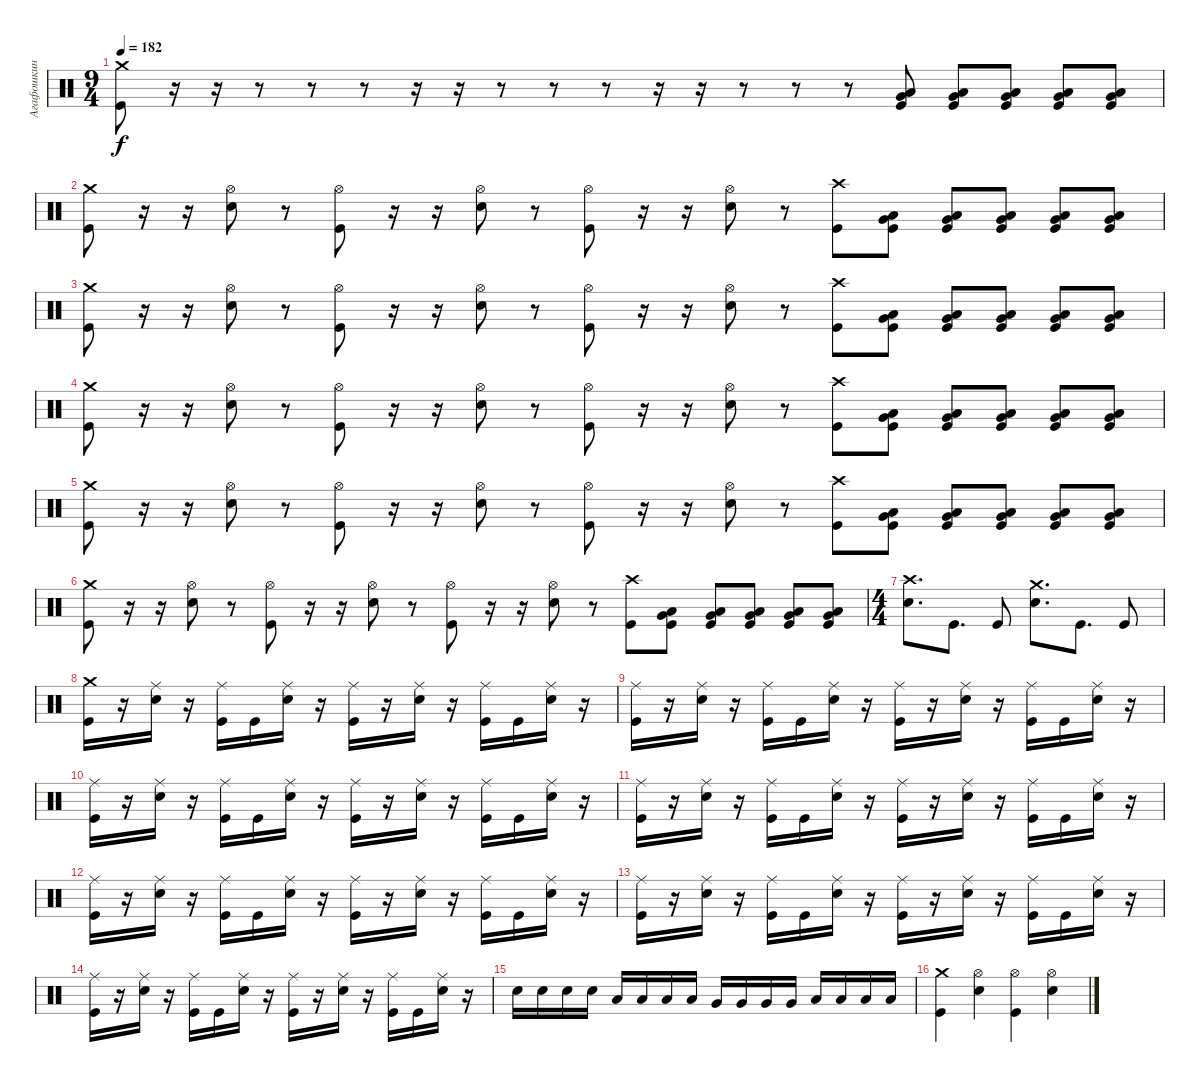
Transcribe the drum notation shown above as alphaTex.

\track ("Агафошкин" "Агафошкин") {instrument percussion}
\staff {score}
\articulation defaults
\ts (9 4)
\tempo 182
\clef neutral
\ks c
("Crash medium (hit)" "Kick (hit)").8{dy f} r.16 r.16 r.8 r.8 r.8 r.16 r.16 r.8 r.8 r.8 r.16 r.16 r.8 r.8 r.8 ("Very Low Tom (hit)" "Low Tom (hit)" "Kick (hit)").8 ("Very Low Tom (hit)" "Low Tom (hit)" "Kick (hit)").8 ("Low Tom (hit)" "Very Low Tom (hit)" "Kick (hit)").8 ("Low Tom (hit)" "Very Low Tom (hit)" "Kick (hit)").8 ("Very Low Tom (hit)" "Low Tom (hit)" "Kick (hit)").8 |
("Crash medium (hit)" "Kick (hit)").8 r.16 r.16 ("Hi-Hat (open)" "Snare (hit) 2").8 r.8 ("Hi-Hat (open)" "Kick (hit)").8 r.16 r.16 ("Hi-Hat (open)" "Snare (hit) 2").8 r.8 ("Hi-Hat (open)" "Kick (hit)").8 r.16 r.16 ("Hi-Hat (open)" "Snare (hit) 2").8 r.8 ("Crash high (hit)" "Kick (hit)").8 ("Very Low Tom (hit)" "Low Tom (hit)" "Kick (hit)").8 ("Very Low Tom (hit)" "Low Tom (hit)" "Kick (hit)").8 ("Low Tom (hit)" "Very Low Tom (hit)" "Kick (hit)").8 ("Low Tom (hit)" "Very Low Tom (hit)" "Kick (hit)").8 ("Very Low Tom (hit)" "Low Tom (hit)" "Kick (hit)").8 |
("Crash medium (hit)" "Kick (hit)").8 r.16 r.16 ("Hi-Hat (open)" "Snare (hit) 2").8 r.8 ("Hi-Hat (open)" "Kick (hit)").8 r.16 r.16 ("Hi-Hat (open)" "Snare (hit) 2").8 r.8 ("Hi-Hat (open)" "Kick (hit)").8 r.16 r.16 ("Hi-Hat (open)" "Snare (hit) 2").8 r.8 ("Crash high (hit)" "Kick (hit)").8 ("Very Low Tom (hit)" "Low Tom (hit)" "Kick (hit)").8 ("Very Low Tom (hit)" "Low Tom (hit)" "Kick (hit)").8 ("Low Tom (hit)" "Very Low Tom (hit)" "Kick (hit)").8 ("Low Tom (hit)" "Very Low Tom (hit)" "Kick (hit)").8 ("Very Low Tom (hit)" "Low Tom (hit)" "Kick (hit)").8 |
("Crash medium (hit)" "Kick (hit)").8 r.16 r.16 ("Hi-Hat (open)" "Snare (hit) 2").8 r.8 ("Hi-Hat (open)" "Kick (hit)").8 r.16 r.16 ("Hi-Hat (open)" "Snare (hit) 2").8 r.8 ("Hi-Hat (open)" "Kick (hit)").8 r.16 r.16 ("Hi-Hat (open)" "Snare (hit) 2").8 r.8 ("Crash high (hit)" "Kick (hit)").8 ("Very Low Tom (hit)" "Low Tom (hit)" "Kick (hit)").8 ("Very Low Tom (hit)" "Low Tom (hit)" "Kick (hit)").8 ("Low Tom (hit)" "Very Low Tom (hit)" "Kick (hit)").8 ("Low Tom (hit)" "Very Low Tom (hit)" "Kick (hit)").8 ("Very Low Tom (hit)" "Low Tom (hit)" "Kick (hit)").8 |
("Crash medium (hit)" "Kick (hit)").8 r.16 r.16 ("Hi-Hat (open)" "Snare (hit) 2").8 r.8 ("Hi-Hat (open)" "Kick (hit)").8 r.16 r.16 ("Hi-Hat (open)" "Snare (hit) 2").8 r.8 ("Hi-Hat (open)" "Kick (hit)").8 r.16 r.16 ("Hi-Hat (open)" "Snare (hit) 2").8 r.8 ("Crash high (hit)" "Kick (hit)").8 ("Very Low Tom (hit)" "Low Tom (hit)" "Kick (hit)").8 ("Very Low Tom (hit)" "Low Tom (hit)" "Kick (hit)").8 ("Low Tom (hit)" "Very Low Tom (hit)" "Kick (hit)").8 ("Low Tom (hit)" "Very Low Tom (hit)" "Kick (hit)").8 ("Very Low Tom (hit)" "Low Tom (hit)" "Kick (hit)").8 |
("Crash medium (hit)" "Kick (hit)").8 r.16 r.16 ("Hi-Hat (open)" "Snare (hit) 2").8 r.8 ("Hi-Hat (open)" "Kick (hit)").8 r.16 r.16 ("Hi-Hat (open)" "Snare (hit) 2").8 r.8 ("Hi-Hat (open)" "Kick (hit)").8 r.16 r.16 ("Hi-Hat (open)" "Snare (hit) 2").8 r.8 ("Crash high (hit)" "Kick (hit)").8 ("Very Low Tom (hit)" "Low Tom (hit)" "Kick (hit)").8 ("Very Low Tom (hit)" "Low Tom (hit)" "Kick (hit)").8 ("Low Tom (hit)" "Very Low Tom (hit)" "Kick (hit)").8 ("Low Tom (hit)" "Very Low Tom (hit)" "Kick (hit)").8 ("Very Low Tom (hit)" "Low Tom (hit)" "Kick (hit)").8 |
\ts (4 4)
("Crash high (hit)" "Snare (hit) 2").8{d} "Kick (hit)".8{d} "Kick (hit)".8 ("Crash medium (hit)" "Snare (hit) 2").8{d} "Kick (hit)".8{d} "Kick (hit)".8 |
("Crash medium (hit)" "Kick (hit)").16 r.16 ("Ride (middle)" "Snare (hit) 2").16 r.16 ("Ride (middle)" "Kick (hit)").16 "Kick (hit)".16 ("Ride (middle)" "Snare (hit) 2").16 r.16 ("Ride (middle)" "Kick (hit)").16 r.16 ("Ride (middle)" "Snare (hit) 2").16 r.16 ("Ride (middle)" "Kick (hit)").16 "Kick (hit)".16 ("Ride (middle)" "Snare (hit) 2").16 r.16 |
("Ride (middle)" "Kick (hit)").16 r.16 ("Ride (middle)" "Snare (hit) 2").16 r.16 ("Ride (middle)" "Kick (hit)").16 "Kick (hit)".16 ("Ride (middle)" "Snare (hit) 2").16 r.16 ("Ride (middle)" "Kick (hit)").16 r.16 ("Ride (middle)" "Snare (hit) 2").16 r.16 ("Ride (middle)" "Kick (hit)").16 "Kick (hit)".16 ("Ride (middle)" "Snare (hit) 2").16 r.16 |
("Ride (middle)" "Kick (hit)").16 r.16 ("Ride (middle)" "Snare (hit) 2").16 r.16 ("Ride (middle)" "Kick (hit)").16 "Kick (hit)".16 ("Ride (middle)" "Snare (hit) 2").16 r.16 ("Ride (middle)" "Kick (hit)").16 r.16 ("Ride (middle)" "Snare (hit) 2").16 r.16 ("Ride (middle)" "Kick (hit)").16 "Kick (hit)".16 ("Ride (middle)" "Snare (hit) 2").16 r.16 |
("Ride (middle)" "Kick (hit)").16 r.16 ("Ride (middle)" "Snare (hit) 2").16 r.16 ("Ride (middle)" "Kick (hit)").16 "Kick (hit)".16 ("Ride (middle)" "Snare (hit) 2").16 r.16 ("Ride (middle)" "Kick (hit)").16 r.16 ("Ride (middle)" "Snare (hit) 2").16 r.16 ("Ride (middle)" "Kick (hit)").16 "Kick (hit)".16 ("Ride (middle)" "Snare (hit) 2").16 r.16 |
("Ride (middle)" "Kick (hit)").16 r.16 ("Ride (middle)" "Snare (hit) 2").16 r.16 ("Ride (middle)" "Kick (hit)").16 "Kick (hit)".16 ("Ride (middle)" "Snare (hit) 2").16 r.16 ("Ride (middle)" "Kick (hit)").16 r.16 ("Ride (middle)" "Snare (hit) 2").16 r.16 ("Ride (middle)" "Kick (hit)").16 "Kick (hit)".16 ("Ride (middle)" "Snare (hit) 2").16 r.16 |
("Ride (middle)" "Kick (hit)").16 r.16 ("Ride (middle)" "Snare (hit) 2").16 r.16 ("Ride (middle)" "Kick (hit)").16 "Kick (hit)".16 ("Ride (middle)" "Snare (hit) 2").16 r.16 ("Ride (middle)" "Kick (hit)").16 r.16 ("Ride (middle)" "Snare (hit) 2").16 r.16 ("Ride (middle)" "Kick (hit)").16 "Kick (hit)".16 ("Ride (middle)" "Snare (hit) 2").16 r.16 |
("Ride (middle)" "Kick (hit)").16 r.16 ("Ride (middle)" "Snare (hit) 2").16 r.16 ("Ride (middle)" "Kick (hit)").16 "Kick (hit)".16 ("Ride (middle)" "Snare (hit) 2").16 r.16 ("Ride (middle)" "Kick (hit)").16 r.16 ("Ride (middle)" "Snare (hit) 2").16 r.16 ("Ride (middle)" "Kick (hit)").16 "Kick (hit)".16 ("Ride (middle)" "Snare (hit) 2").16 r.16 |
"Snare (hit) 2".16 "Snare (hit) 2".16 "Snare (hit) 2".16 "Snare (hit) 2".16 "Low Tom (hit)".16 "Low Tom (hit)".16 "Low Tom (hit)".16 "Low Tom (hit)".16 "Very Low Tom (hit)".16 "Very Low Tom (hit)".16 "Very Low Tom (hit)".16 "Very Low Tom (hit)".16 "Low Floor Tom (hit)".16 "Low Floor Tom (hit)".16 "Low Floor Tom (hit)".16 "Low Floor Tom (hit)".16 |
("Crash medium (hit)" "Kick (hit)").4 ("Hi-Hat (open)" "Snare (hit) 2").4 ("Hi-Hat (open)" "Kick (hit)").4 ("Hi-Hat (open)" "Snare (hit) 2").4
